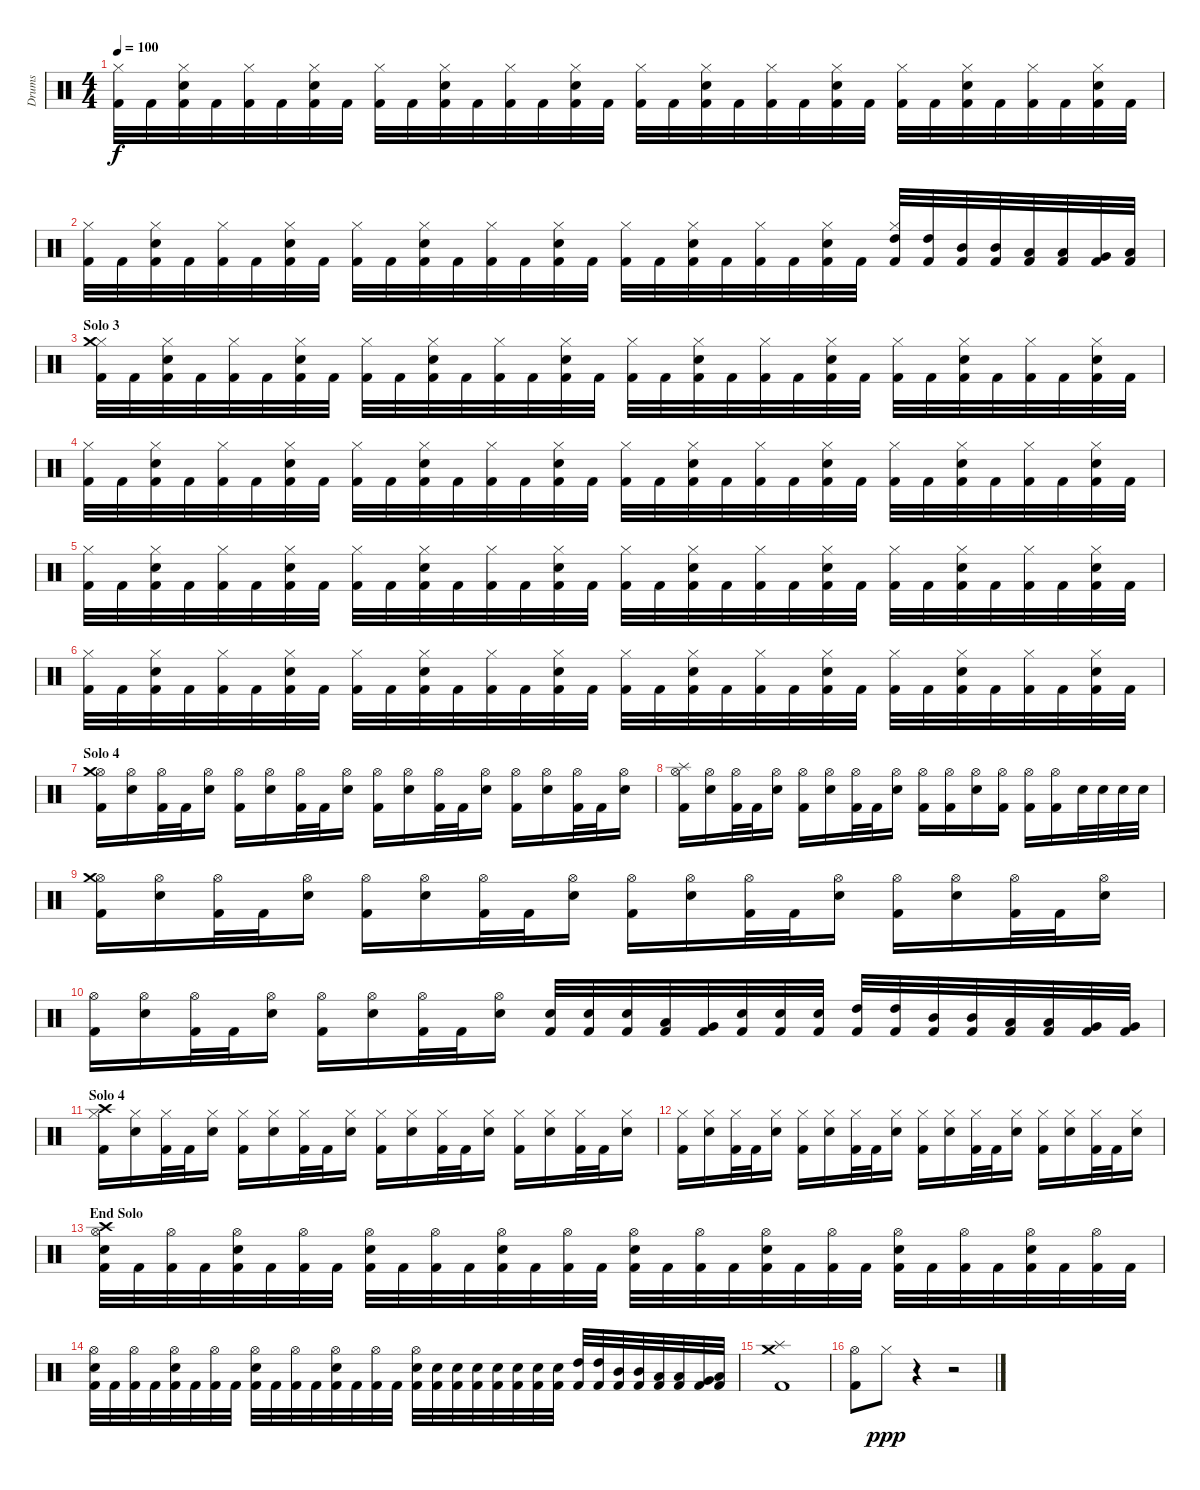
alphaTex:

\track ("Drums" "Drums") {instrument percussion}
\staff {score}
\articulation defaults
\ts (4 4)
\section ("" "")
\tempo 100
\clef neutral
\ks c
("Kick (hit) 2" "Hi-Hat (closed)").32{dy f} "Kick (hit) 2".32 ("Kick (hit) 2" "Snare (hit) 2" "Hi-Hat (closed)").32 "Kick (hit) 2".32 ("Kick (hit) 2" "Hi-Hat (closed)").32 "Kick (hit) 2".32 ("Kick (hit) 2" "Snare (hit) 2" "Hi-Hat (closed)").32 "Kick (hit) 2".32 ("Kick (hit) 2" "Hi-Hat (closed)").32 "Kick (hit) 2".32 ("Kick (hit) 2" "Snare (hit) 2" "Hi-Hat (closed)").32 "Kick (hit) 2".32 ("Kick (hit) 2" "Hi-Hat (closed)").32 "Kick (hit) 2".32 ("Kick (hit) 2" "Snare (hit) 2" "Hi-Hat (closed)").32 "Kick (hit) 2".32 ("Kick (hit) 2" "Hi-Hat (closed)").32 "Kick (hit) 2".32 ("Kick (hit) 2" "Snare (hit) 2" "Hi-Hat (closed)").32 "Kick (hit) 2".32 ("Kick (hit) 2" "Hi-Hat (closed)").32 "Kick (hit) 2".32 ("Kick (hit) 2" "Snare (hit) 2" "Hi-Hat (closed)").32 "Kick (hit) 2".32 ("Kick (hit) 2" "Hi-Hat (closed)").32 "Kick (hit) 2".32 ("Kick (hit) 2" "Snare (hit) 2" "Hi-Hat (closed)").32 "Kick (hit) 2".32 ("Kick (hit) 2" "Hi-Hat (closed)").32 "Kick (hit) 2".32 ("Kick (hit) 2" "Snare (hit) 2" "Hi-Hat (closed)").32 "Kick (hit) 2".32 |
("Kick (hit) 2" "Hi-Hat (closed)").32 "Kick (hit) 2".32 ("Kick (hit) 2" "Snare (hit) 2" "Hi-Hat (closed)").32 "Kick (hit) 2".32 ("Kick (hit) 2" "Hi-Hat (closed)").32 "Kick (hit) 2".32 ("Kick (hit) 2" "Snare (hit) 2" "Hi-Hat (closed)").32 "Kick (hit) 2".32 ("Kick (hit) 2" "Hi-Hat (closed)").32 "Kick (hit) 2".32 ("Kick (hit) 2" "Snare (hit) 2" "Hi-Hat (closed)").32 "Kick (hit) 2".32 ("Kick (hit) 2" "Hi-Hat (closed)").32 "Kick (hit) 2".32 ("Kick (hit) 2" "Snare (hit) 2" "Hi-Hat (closed)").32 "Kick (hit) 2".32 ("Kick (hit) 2" "Hi-Hat (closed)").32 "Kick (hit) 2".32 ("Kick (hit) 2" "Snare (hit) 2" "Hi-Hat (closed)").32 "Kick (hit) 2".32 ("Kick (hit) 2" "Hi-Hat (closed)").32 "Kick (hit) 2".32 ("Kick (hit) 2" "Snare (hit) 2" "Hi-Hat (closed)").32 "Kick (hit) 2".32 ("Kick (hit) 2" "High Tom (hit)" "Hi-Hat (closed)").32 ("Kick (hit) 2" "High Tom (hit)").32 ("Kick (hit) 2" "Mid Tom (hit)").32 ("Kick (hit) 2" "Mid Tom (hit)").32 ("Kick (hit) 2" "Low Tom (hit)").32 ("Kick (hit) 2" "Low Tom (hit)").32 ("Kick (hit) 2" "Very Low Tom (hit)").32 ("Kick (hit) 2" "Low Floor Tom (hit)").32 |
\section ("" "Solo 3")
("Kick (hit) 2" "Hi-Hat (closed)" "Crash medium (hit)").32 "Kick (hit) 2".32 ("Kick (hit) 2" "Snare (hit) 2" "Hi-Hat (closed)").32 "Kick (hit) 2".32 ("Kick (hit) 2" "Hi-Hat (closed)").32 "Kick (hit) 2".32 ("Kick (hit) 2" "Snare (hit) 2" "Hi-Hat (closed)").32 "Kick (hit) 2".32 ("Kick (hit) 2" "Hi-Hat (closed)").32 "Kick (hit) 2".32 ("Kick (hit) 2" "Snare (hit) 2" "Hi-Hat (closed)").32 "Kick (hit) 2".32 ("Kick (hit) 2" "Hi-Hat (closed)").32 "Kick (hit) 2".32 ("Kick (hit) 2" "Snare (hit) 2" "Hi-Hat (closed)").32 "Kick (hit) 2".32 ("Kick (hit) 2" "Hi-Hat (closed)").32 "Kick (hit) 2".32 ("Kick (hit) 2" "Snare (hit) 2" "Hi-Hat (closed)").32 "Kick (hit) 2".32 ("Kick (hit) 2" "Hi-Hat (closed)").32 "Kick (hit) 2".32 ("Kick (hit) 2" "Snare (hit) 2" "Hi-Hat (closed)").32 "Kick (hit) 2".32 ("Kick (hit) 2" "Hi-Hat (closed)").32 "Kick (hit) 2".32 ("Kick (hit) 2" "Snare (hit) 2" "Hi-Hat (closed)").32 "Kick (hit) 2".32 ("Kick (hit) 2" "Hi-Hat (closed)").32 "Kick (hit) 2".32 ("Kick (hit) 2" "Snare (hit) 2" "Hi-Hat (closed)").32 "Kick (hit) 2".32 |
("Kick (hit) 2" "Hi-Hat (closed)").32 "Kick (hit) 2".32 ("Kick (hit) 2" "Snare (hit) 2" "Hi-Hat (closed)").32 "Kick (hit) 2".32 ("Kick (hit) 2" "Hi-Hat (closed)").32 "Kick (hit) 2".32 ("Kick (hit) 2" "Snare (hit) 2" "Hi-Hat (closed)").32 "Kick (hit) 2".32 ("Kick (hit) 2" "Hi-Hat (closed)").32 "Kick (hit) 2".32 ("Kick (hit) 2" "Snare (hit) 2" "Hi-Hat (closed)").32 "Kick (hit) 2".32 ("Kick (hit) 2" "Hi-Hat (closed)").32 "Kick (hit) 2".32 ("Kick (hit) 2" "Snare (hit) 2" "Hi-Hat (closed)").32 "Kick (hit) 2".32 ("Kick (hit) 2" "Hi-Hat (closed)").32 "Kick (hit) 2".32 ("Kick (hit) 2" "Snare (hit) 2" "Hi-Hat (closed)").32 "Kick (hit) 2".32 ("Kick (hit) 2" "Hi-Hat (closed)").32 "Kick (hit) 2".32 ("Kick (hit) 2" "Snare (hit) 2" "Hi-Hat (closed)").32 "Kick (hit) 2".32 ("Kick (hit) 2" "Hi-Hat (closed)").32 "Kick (hit) 2".32 ("Kick (hit) 2" "Snare (hit) 2" "Hi-Hat (closed)").32 "Kick (hit) 2".32 ("Kick (hit) 2" "Hi-Hat (closed)").32 "Kick (hit) 2".32 ("Kick (hit) 2" "Snare (hit) 2" "Hi-Hat (closed)").32 "Kick (hit) 2".32 |
("Kick (hit) 2" "Hi-Hat (closed)").32 "Kick (hit) 2".32 ("Kick (hit) 2" "Snare (hit) 2" "Hi-Hat (closed)").32 "Kick (hit) 2".32 ("Kick (hit) 2" "Hi-Hat (closed)").32 "Kick (hit) 2".32 ("Kick (hit) 2" "Snare (hit) 2" "Hi-Hat (closed)").32 "Kick (hit) 2".32 ("Kick (hit) 2" "Hi-Hat (closed)").32 "Kick (hit) 2".32 ("Kick (hit) 2" "Snare (hit) 2" "Hi-Hat (closed)").32 "Kick (hit) 2".32 ("Kick (hit) 2" "Hi-Hat (closed)").32 "Kick (hit) 2".32 ("Kick (hit) 2" "Snare (hit) 2" "Hi-Hat (closed)").32 "Kick (hit) 2".32 ("Kick (hit) 2" "Hi-Hat (closed)").32 "Kick (hit) 2".32 ("Kick (hit) 2" "Snare (hit) 2" "Hi-Hat (closed)").32 "Kick (hit) 2".32 ("Kick (hit) 2" "Hi-Hat (closed)").32 "Kick (hit) 2".32 ("Kick (hit) 2" "Snare (hit) 2" "Hi-Hat (closed)").32 "Kick (hit) 2".32 ("Kick (hit) 2" "Hi-Hat (closed)").32 "Kick (hit) 2".32 ("Kick (hit) 2" "Snare (hit) 2" "Hi-Hat (closed)").32 "Kick (hit) 2".32 ("Kick (hit) 2" "Hi-Hat (closed)").32 "Kick (hit) 2".32 ("Kick (hit) 2" "Snare (hit) 2" "Hi-Hat (closed)").32 "Kick (hit) 2".32 |
("Kick (hit) 2" "Hi-Hat (closed)").32 "Kick (hit) 2".32 ("Kick (hit) 2" "Snare (hit) 2" "Hi-Hat (closed)").32 "Kick (hit) 2".32 ("Kick (hit) 2" "Hi-Hat (closed)").32 "Kick (hit) 2".32 ("Kick (hit) 2" "Snare (hit) 2" "Hi-Hat (closed)").32 "Kick (hit) 2".32 ("Kick (hit) 2" "Hi-Hat (closed)").32 "Kick (hit) 2".32 ("Kick (hit) 2" "Snare (hit) 2" "Hi-Hat (closed)").32 "Kick (hit) 2".32 ("Kick (hit) 2" "Hi-Hat (closed)").32 "Kick (hit) 2".32 ("Kick (hit) 2" "Snare (hit) 2" "Hi-Hat (closed)").32 "Kick (hit) 2".32 ("Kick (hit) 2" "Hi-Hat (closed)").32 "Kick (hit) 2".32 ("Kick (hit) 2" "Snare (hit) 2" "Hi-Hat (closed)").32 "Kick (hit) 2".32 ("Kick (hit) 2" "Hi-Hat (closed)").32 "Kick (hit) 2".32 ("Kick (hit) 2" "Snare (hit) 2" "Hi-Hat (closed)").32 "Kick (hit) 2".32 ("Kick (hit) 2" "Hi-Hat (closed)").32 "Kick (hit) 2".32 ("Kick (hit) 2" "Snare (hit) 2" "Hi-Hat (closed)").32 "Kick (hit) 2".32 ("Kick (hit) 2" "Hi-Hat (closed)").32 "Kick (hit) 2".32 ("Kick (hit) 2" "Snare (hit) 2" "Hi-Hat (closed)").32 "Kick (hit) 2".32 |
\section ("" "Solo 4")
("Kick (hit) 2" "Hi-Hat (open)" "Crash medium (hit)").16 ("Snare (hit) 2" "Hi-Hat (open)").16 ("Kick (hit) 2" "Hi-Hat (open)").32 "Kick (hit) 2".32 ("Snare (hit) 2" "Hi-Hat (open)").16 ("Kick (hit) 2" "Hi-Hat (open)").16 ("Snare (hit) 2" "Hi-Hat (open)").16 ("Kick (hit) 2" "Hi-Hat (open)").32 "Kick (hit) 2".32 ("Snare (hit) 2" "Hi-Hat (open)").16 ("Kick (hit) 2" "Hi-Hat (open)").16 ("Snare (hit) 2" "Hi-Hat (open)").16 ("Kick (hit) 2" "Hi-Hat (open)").32 "Kick (hit) 2".32 ("Snare (hit) 2" "Hi-Hat (open)").16 ("Kick (hit) 2" "Hi-Hat (open)").16 ("Snare (hit) 2" "Hi-Hat (open)").16 ("Kick (hit) 2" "Hi-Hat (open)").32 "Kick (hit) 2".32 ("Snare (hit) 2" "Hi-Hat (open)").16 |
("Kick (hit) 2" "Hi-Hat (open)" "Splash (hit)").16 ("Snare (hit) 2" "Hi-Hat (open)").16 ("Kick (hit) 2" "Hi-Hat (open)").32 "Kick (hit) 2".32 ("Snare (hit) 2" "Hi-Hat (open)").16 ("Kick (hit) 2" "Hi-Hat (open)").16 ("Snare (hit) 2" "Hi-Hat (open)").16 ("Kick (hit) 2" "Hi-Hat (open)").32 "Kick (hit) 2".32 ("Snare (hit) 2" "Hi-Hat (open)").16 ("Kick (hit) 2" "Hi-Hat (open)").16 ("Kick (hit) 2" "Hi-Hat (open)").16 ("Snare (hit) 2" "Hi-Hat (open)").16 ("Kick (hit) 2" "Hi-Hat (open)").16 ("Kick (hit) 2" "Hi-Hat (open)").16 ("Kick (hit) 2" "Hi-Hat (open)").16 "Snare (hit) 2".32 "Snare (hit) 2".32 "Snare (hit) 2".32 "Snare (hit) 2".32 |
\section ("" "")
("Kick (hit) 2" "Hi-Hat (open)" "Crash medium (hit)").16 ("Snare (hit) 2" "Hi-Hat (open)").16 ("Kick (hit) 2" "Hi-Hat (open)").32 "Kick (hit) 2".32 ("Snare (hit) 2" "Hi-Hat (open)").16 ("Kick (hit) 2" "Hi-Hat (open)").16 ("Snare (hit) 2" "Hi-Hat (open)").16 ("Kick (hit) 2" "Hi-Hat (open)").32 "Kick (hit) 2".32 ("Snare (hit) 2" "Hi-Hat (open)").16 ("Kick (hit) 2" "Hi-Hat (open)").16 ("Snare (hit) 2" "Hi-Hat (open)").16 ("Kick (hit) 2" "Hi-Hat (open)").32 "Kick (hit) 2".32 ("Snare (hit) 2" "Hi-Hat (open)").16 ("Kick (hit) 2" "Hi-Hat (open)").16 ("Snare (hit) 2" "Hi-Hat (open)").16 ("Kick (hit) 2" "Hi-Hat (open)").32 "Kick (hit) 2".32 ("Snare (hit) 2" "Hi-Hat (open)").16 |
("Kick (hit) 2" "Hi-Hat (open)").16 ("Snare (hit) 2" "Hi-Hat (open)").16 ("Kick (hit) 2" "Hi-Hat (open)").32 "Kick (hit) 2".32 ("Snare (hit) 2" "Hi-Hat (open)").16 ("Kick (hit) 2" "Hi-Hat (open)").16 ("Snare (hit) 2" "Hi-Hat (open)").16 ("Kick (hit) 2" "Hi-Hat (open)").32 "Kick (hit) 2".32 ("Snare (hit) 2" "Hi-Hat (open)").16 ("Kick (hit) 2" "Snare (hit) 2").32 ("Kick (hit) 2" "Snare (hit) 2").32 ("Kick (hit) 2" "Snare (hit) 2").32 ("Kick (hit) 2" "Low Tom (hit)").32 ("Kick (hit) 2" "Very Low Tom (hit)").32 ("Kick (hit) 2" "Snare (hit) 2").32 ("Kick (hit) 2" "Snare (hit) 2").32 ("Kick (hit) 2" "Snare (hit) 2").32 ("Kick (hit) 2" "High Tom (hit)").32 ("Kick (hit) 2" "High Tom (hit)").32 ("Kick (hit) 2" "Mid Tom (hit)").32 ("Kick (hit) 2" "Mid Tom (hit)").32 ("Kick (hit) 2" "Low Tom (hit)").32 ("Kick (hit) 2" "Low Tom (hit)").32 ("Kick (hit) 2" "Very Low Tom (hit)").32 ("Kick (hit) 2" "Very Low Tom (hit)").32 |
\section ("" "Solo 4")
("Kick (hit) 2" "Hi-Hat (closed)" "Crash high (hit)").16 ("Snare (hit) 2" "Hi-Hat (closed)").16 ("Kick (hit) 2" "Hi-Hat (closed)").32 "Kick (hit) 2".32 ("Snare (hit) 2" "Hi-Hat (closed)").16 ("Kick (hit) 2" "Hi-Hat (closed)").16 ("Snare (hit) 2" "Hi-Hat (closed)").16 ("Kick (hit) 2" "Hi-Hat (closed)").32 "Kick (hit) 2".32 ("Snare (hit) 2" "Hi-Hat (closed)").16 ("Kick (hit) 2" "Hi-Hat (closed)").16 ("Snare (hit) 2" "Hi-Hat (closed)").16 ("Kick (hit) 2" "Hi-Hat (closed)").32 "Kick (hit) 2".32 ("Snare (hit) 2" "Hi-Hat (closed)").16 ("Kick (hit) 2" "Hi-Hat (closed)").16 ("Snare (hit) 2" "Hi-Hat (closed)").16 ("Kick (hit) 2" "Hi-Hat (closed)").32 "Kick (hit) 2".32 ("Snare (hit) 2" "Hi-Hat (closed)").16 |
("Kick (hit) 2" "Hi-Hat (closed)").16 ("Snare (hit) 2" "Hi-Hat (closed)").16 ("Kick (hit) 2" "Hi-Hat (closed)").32 "Kick (hit) 2".32 ("Snare (hit) 2" "Hi-Hat (closed)").16 ("Kick (hit) 2" "Hi-Hat (closed)").16 ("Snare (hit) 2" "Hi-Hat (closed)").16 ("Kick (hit) 2" "Hi-Hat (closed)").32 "Kick (hit) 2".32 ("Snare (hit) 2" "Hi-Hat (closed)").16 ("Kick (hit) 2" "Hi-Hat (closed)").16 ("Snare (hit) 2" "Hi-Hat (closed)").16 ("Kick (hit) 2" "Hi-Hat (closed)").32 "Kick (hit) 2".32 ("Snare (hit) 2" "Hi-Hat (closed)").16 ("Kick (hit) 2" "Hi-Hat (closed)").16 ("Snare (hit) 2" "Hi-Hat (closed)").16 ("Kick (hit) 2" "Hi-Hat (closed)").32 "Kick (hit) 2".32 ("Snare (hit) 2" "Hi-Hat (closed)").16 |
\section ("" "End Solo")
("Kick (hit) 2" "Snare (hit) 2" "Hi-Hat (open)" "Crash high (hit)").32 "Kick (hit) 2".32 ("Kick (hit) 2" "Hi-Hat (open)").32 "Kick (hit) 2".32 ("Kick (hit) 2" "Snare (hit) 2" "Hi-Hat (open)").32 "Kick (hit) 2".32 ("Kick (hit) 2" "Hi-Hat (open)").32 "Kick (hit) 2".32 ("Kick (hit) 2" "Snare (hit) 2" "Hi-Hat (open)").32 "Kick (hit) 2".32 ("Kick (hit) 2" "Hi-Hat (open)").32 "Kick (hit) 2".32 ("Kick (hit) 2" "Snare (hit) 2" "Hi-Hat (open)").32 "Kick (hit) 2".32 ("Kick (hit) 2" "Hi-Hat (open)").32 "Kick (hit) 2".32 ("Kick (hit) 2" "Snare (hit) 2" "Hi-Hat (open)").32 "Kick (hit) 2".32 ("Kick (hit) 2" "Hi-Hat (open)").32 "Kick (hit) 2".32 ("Kick (hit) 2" "Snare (hit) 2" "Hi-Hat (open)").32 "Kick (hit) 2".32 ("Kick (hit) 2" "Hi-Hat (open)").32 "Kick (hit) 2".32 ("Kick (hit) 2" "Snare (hit) 2" "Hi-Hat (open)").32 "Kick (hit) 2".32 ("Kick (hit) 2" "Hi-Hat (open)").32 "Kick (hit) 2".32 ("Kick (hit) 2" "Snare (hit) 2" "Hi-Hat (open)").32 "Kick (hit) 2".32 ("Kick (hit) 2" "Hi-Hat (open)").32 "Kick (hit) 2".32 |
("Kick (hit) 2" "Snare (hit) 2" "Hi-Hat (open)").32 "Kick (hit) 2".32 ("Kick (hit) 2" "Hi-Hat (open)").32 "Kick (hit) 2".32 ("Kick (hit) 2" "Snare (hit) 2" "Hi-Hat (open)").32 "Kick (hit) 2".32 ("Kick (hit) 2" "Hi-Hat (open)").32 "Kick (hit) 2".32 ("Kick (hit) 2" "Snare (hit) 2" "Hi-Hat (open)").32 "Kick (hit) 2".32 ("Kick (hit) 2" "Hi-Hat (open)").32 "Kick (hit) 2".32 ("Kick (hit) 2" "Snare (hit) 2" "Hi-Hat (open)").32 "Kick (hit) 2".32 ("Kick (hit) 2" "Hi-Hat (open)").32 "Kick (hit) 2".32 ("Kick (hit) 2" "Snare (hit) 2" "Hi-Hat (open)").32 ("Kick (hit) 2" "Snare (hit) 2").32 ("Kick (hit) 2" "Snare (hit) 2").32 ("Kick (hit) 2" "Snare (hit) 2").32 ("Kick (hit) 2" "Snare (hit) 2").32 ("Kick (hit) 2" "Snare (hit) 2").32 ("Kick (hit) 2" "Snare (hit) 2").32 ("Kick (hit) 2" "Snare (hit) 2").32 ("Kick (hit) 2" "High Tom (hit)").32 ("Kick (hit) 2" "High Tom (hit)").32 ("Kick (hit) 2" "Mid Tom (hit)").32 ("Kick (hit) 2" "Mid Tom (hit)").32 ("Kick (hit) 2" "Low Tom (hit)").32 ("Kick (hit) 2" "Low Tom (hit)").32 ("Kick (hit) 2" "Very Low Tom (hit)").32 ("Kick (hit) 2" "Low Floor Tom (hit)").32 |
("Kick (hit) 2" "Splash (hit)" "Crash medium (hit)").1 |
("Kick (hit) 2" "Hi-Hat (open)").8 "Hi-Hat (closed)".8{dy ppp} r.4 r.2
